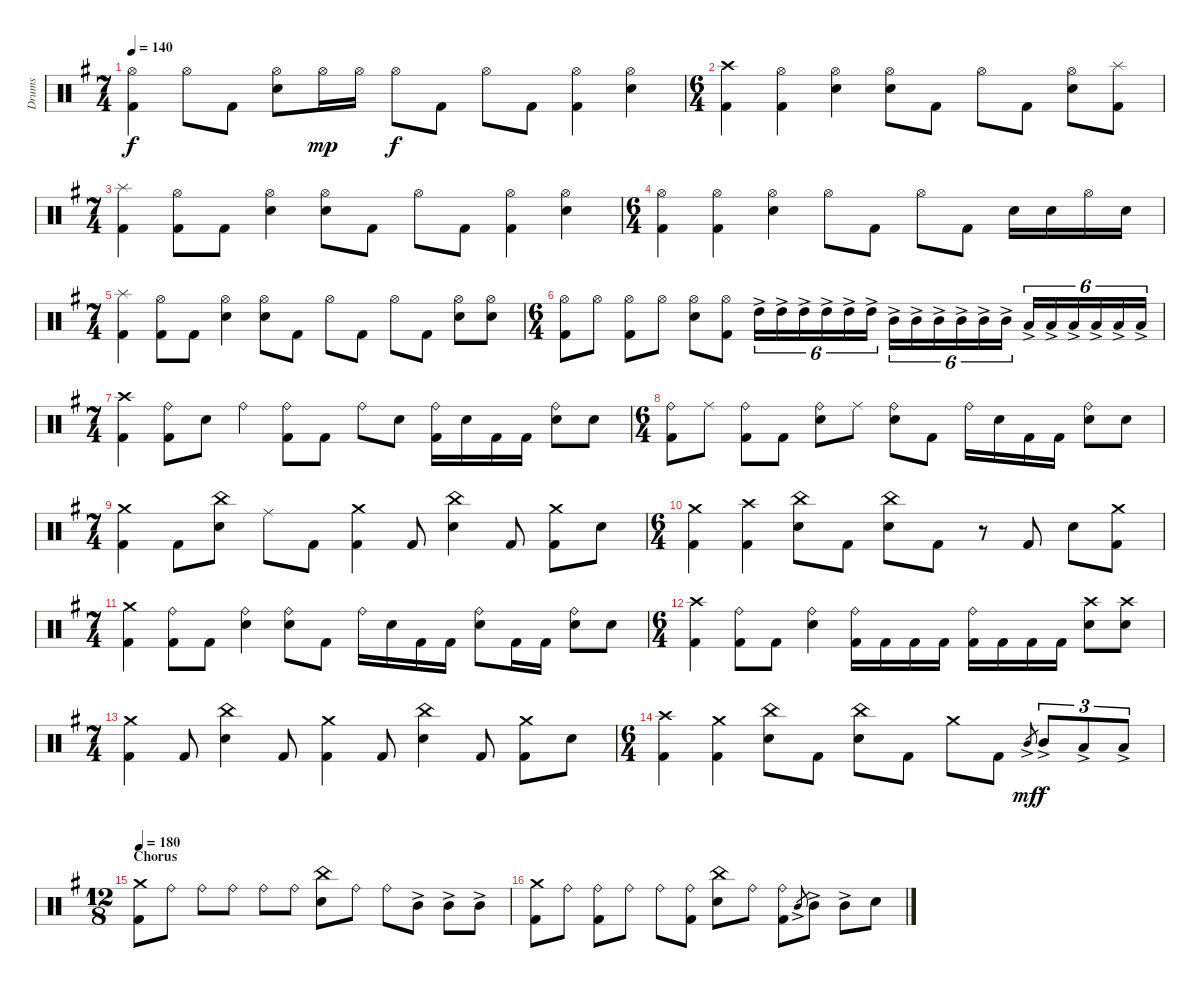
\defaultSystemsLayout 4
\bracketExtendMode groupsimilarinstruments
\otherSystemsTrackNameOrientation horizontal
\track ("Drumkit" "Drums") {multiBarRest instrument percussion}
\staff {score}
\articulation defaults
\ts (7 4)
\beaming (8 2 2 2 2 2 2 2)
\tempo 140
\clef neutral
\ks g
("Hi-Hat (open)"{acc forcenatural} "Kick (hit) 2"{acc forcenatural}).4{dy f} "Hi-Hat (open)"{acc forcenatural}.8 "Kick (hit) 2"{acc forcenatural}.8 ("Hi-Hat (open)"{acc forcenatural} "Snare (hit) 2"{acc forcenatural}).8 "Hi-Hat (open)"{acc forcenatural}.16{dy mp} "Hi-Hat (open)"{acc forcenatural}.16 "Hi-Hat (open)"{acc forcenatural}.8{dy f} "Kick (hit) 2"{acc forcenatural}.8 "Hi-Hat (open)"{acc forcenatural}.8 "Kick (hit) 2"{acc forcenatural}.8 ("Hi-Hat (open)"{acc forcenatural} "Kick (hit) 2"{acc forcenatural}).4 ("Hi-Hat (open)"{acc forcenatural} "Snare (hit) 2"{acc forcenatural}).4 |
\ts (6 4)
\beaming (8 2 2 2 2 2 2 2)
("Kick (hit) 2"{acc forcenatural} "Crash high (hit)"{acc forcenatural}).4 ("Hi-Hat (open)"{acc forcenatural} "Kick (hit) 2"{acc forcenatural}).4 ("Hi-Hat (open)"{acc forcenatural} "Snare (hit) 2"{acc forcenatural}).4 ("Hi-Hat (open)"{acc forcenatural} "Snare (hit) 2"{acc forcenatural}).8 "Kick (hit) 2"{acc forcenatural}.8 "Hi-Hat (open)"{acc forcenatural}.8 "Kick (hit) 2"{acc forcenatural}.8 ("Hi-Hat (open)"{acc forcenatural} "Snare (hit) 2"{acc forcenatural}).8 ("Splash (hit)"{acc forcenatural} "Kick (hit) 2"{acc forcenatural}).8 |
\ts (7 4)
\beaming (8 2 2 2 2 2 2 2)
("Splash (hit)"{acc forcenatural} "Kick (hit) 2"{acc forcenatural}).4 ("Hi-Hat (open)"{acc forcenatural} "Kick (hit) 2"{acc forcenatural}).8 "Kick (hit) 2"{acc forcenatural}.8 ("Hi-Hat (open)"{acc forcenatural} "Snare (hit) 2"{acc forcenatural}).4 ("Hi-Hat (open)"{acc forcenatural} "Snare (hit) 2"{acc forcenatural}).8 "Kick (hit) 2"{acc forcenatural}.8 "Hi-Hat (open)"{acc forcenatural}.8 "Kick (hit) 2"{acc forcenatural}.8 ("Hi-Hat (open)"{acc forcenatural} "Kick (hit) 2"{acc forcenatural}).4 ("Hi-Hat (open)"{acc forcenatural} "Snare (hit) 2"{acc forcenatural}).4 |
\ts (6 4)
\beaming (8 2 2 2 2 2 2 2)
("Hi-Hat (open)"{acc forcenatural} "Kick (hit) 2"{acc forcenatural}).4 ("Hi-Hat (open)"{acc forcenatural} "Kick (hit) 2"{acc forcenatural}).4 ("Hi-Hat (open)"{acc forcenatural} "Snare (hit) 2"{acc forcenatural}).4 "Hi-Hat (open)"{acc forcenatural}.8 "Kick (hit) 2"{acc forcenatural}.8 "Hi-Hat (open)"{acc forcenatural}.8 "Kick (hit) 2"{acc forcenatural}.8 "Snare (hit) 2"{acc forcenatural}.16 "Snare (hit) 2"{acc forcenatural}.16 "Hi-Hat (open)"{acc forcenatural}.16 "Snare (hit) 2"{acc forcenatural}.16 |
\ts (7 4)
\beaming (8 2 2 2 2 2 2 2)
("Splash (hit)"{acc forcenatural} "Kick (hit) 2"{acc forcenatural}).4 ("Hi-Hat (open)"{acc forcenatural} "Kick (hit) 2"{acc forcenatural}).8 "Kick (hit) 2"{acc forcenatural}.8 ("Hi-Hat (open)"{acc forcenatural} "Snare (hit) 2"{acc forcenatural}).4 ("Hi-Hat (open)"{acc forcenatural} "Snare (hit) 2"{acc forcenatural}).8 "Kick (hit) 2"{acc forcenatural}.8 "Hi-Hat (open)"{acc forcenatural}.8 "Kick (hit) 2"{acc forcenatural}.8 "Hi-Hat (open)"{acc forcenatural}.8 "Kick (hit) 2"{acc forcenatural}.8 ("Hi-Hat (open)"{acc forcenatural} "Snare (hit) 2"{acc forcenatural}).8 ("Snare (hit) 2"{acc forcenatural} "Hi-Hat (open)"{acc forcenatural}).8 |
\ts (6 4)
\beaming (8 2 2 2 2 2 2 2)
("Hi-Hat (open)"{acc forcenatural} "Kick (hit) 2"{acc forcenatural}).8 "Hi-Hat (open)"{acc forcenatural}.8 ("Hi-Hat (open)"{acc forcenatural} "Kick (hit) 2"{acc forcenatural}).8 "Hi-Hat (open)"{acc forcenatural}.8 ("Hi-Hat (open)"{acc forcenatural} "Snare (hit) 2"{acc forcenatural}).8 ("Hi-Hat (open)"{acc forcenatural} "Kick (hit) 2"{acc forcenatural}).8 "High Tom (hit)"{ac acc forcenatural}.16{tu (6 4)} "High Tom (hit)"{ac acc forcenatural}.16{tu (6 4)} "High Tom (hit)"{ac acc forcenatural}.16{tu (6 4) beam merge} "High Tom (hit)"{ac acc forcenatural}.16{tu (6 4)} "High Tom (hit)"{ac acc forcenatural}.16{tu (6 4)} "High Tom (hit)"{ac acc forcenatural}.16{tu (6 4)} "Mid Tom (hit)"{ac acc forcenatural}.16{tu (6 4)} "Mid Tom (hit)"{ac acc forcenatural}.16{tu (6 4)} "Mid Tom (hit)"{ac acc forcenatural}.16{tu (6 4) beam merge} "Mid Tom (hit)"{ac acc forcenatural}.16{tu (6 4)} "Mid Tom (hit)"{ac acc forcenatural}.16{tu (6 4)} "Mid Tom (hit)"{ac acc forcenatural}.16{tu (6 4)} "Low Tom (hit)"{ac acc forcenatural}.16{tu (6 4)} "Low Tom (hit)"{ac acc forcenatural}.16{tu (6 4)} "Low Tom (hit)"{ac acc forcenatural}.16{tu (6 4) beam merge} "Low Tom (hit)"{ac acc forcenatural}.16{tu (6 4)} "Low Tom (hit)"{ac acc forcenatural}.16{tu (6 4)} "Low Tom (hit)"{ac acc forcenatural}.16{tu (6 4)} |
\ts (7 4)
\beaming (8 2 2 2 2 2 2 2)
("Kick (hit) 2"{acc forcenatural} "Crash high (hit)"{acc forcenatural}).4 ("Ride (bell)"{acc forcenatural} "Kick (hit) 2"{acc forcenatural}).8 "Snare (hit) 2"{acc forcenatural}.8 "Ride (bell)"{acc forcenatural}.4 ("Ride (bell)"{acc forcenatural} "Kick (hit) 2"{acc forcenatural}).8 "Kick (hit) 2"{acc forcenatural}.8 "Ride (bell)"{acc forcenatural}.8 "Snare (hit) 2"{acc forcenatural}.8 ("Ride (bell)"{acc forcenatural} "Kick (hit) 2"{acc forcenatural}).16 "Snare (hit) 2"{acc forcenatural}.16 "Kick (hit) 2"{acc forcenatural}.16 "Kick (hit) 2"{acc forcenatural}.16 ("Ride (bell)"{acc forcenatural} "Snare (hit) 2"{acc forcenatural}).8 "Snare (hit) 2"{acc forcenatural}.8 |
\ts (6 4)
\beaming (8 2 2 2 2 2 2 2)
("Ride (bell)"{acc forcenatural} "Kick (hit) 2"{acc forcenatural}).8 "Ride (middle)"{acc forcenatural}.8 ("Ride (bell)"{acc forcenatural} "Kick (hit) 2"{acc forcenatural}).8 "Kick (hit) 2"{acc forcenatural}.8 ("Ride (bell)"{acc forcenatural} "Snare (hit) 2"{acc forcenatural}).8 "Ride (middle)"{acc forcenatural}.8 ("Ride (bell)"{acc forcenatural} "Snare (hit) 2"{acc forcenatural}).8 "Kick (hit) 2"{acc forcenatural}.8 "Ride (bell)"{acc forcenatural}.16 "Snare (hit) 2"{acc forcenatural}.16 "Kick (hit) 2"{acc forcenatural}.16 "Kick (hit) 2"{acc forcenatural}.16 ("Ride (bell)"{acc forcenatural} "Snare (hit) 2"{acc forcenatural}).8 "Snare (hit) 2"{acc forcenatural}.8 |
\ts (7 4)
\beaming (8 2 2 2 2 2 2 2)
("Crash medium (hit)"{acc forcenatural} "Kick (hit) 2"{acc forcenatural}).4 "Kick (hit) 2"{acc forcenatural}.8 ("Snare (hit) 2"{acc forcenatural} "China (hit)"{acc forcenatural}).8 "Ride (middle)"{acc forcenatural}.8 "Kick (hit) 2"{acc forcenatural}.8 ("Crash medium (hit)"{acc forcenatural} "Kick (hit) 2"{acc forcenatural}).4 "Kick (hit) 2"{acc forcenatural}.8 ("Snare (hit) 2"{acc forcenatural} "China (hit)"{acc forcenatural}).4 "Kick (hit) 2"{acc forcenatural}.8 ("Crash medium (hit)"{acc forcenatural} "Kick (hit) 2"{acc forcenatural}).8 "Snare (hit) 2"{acc forcenatural}.8 |
\ts (6 4)
\beaming (8 2 2 2 2 2 2 2)
("Kick (hit) 2"{acc forcenatural} "Crash medium (hit)"{acc forcenatural}).4 ("Crash high (hit)"{acc forcenatural} "Kick (hit) 2"{acc forcenatural}).4 ("Snare (hit) 2"{acc forcenatural} "China (hit)"{acc forcenatural}).8 "Kick (hit) 2"{acc forcenatural}.8 ("Snare (hit) 2"{acc forcenatural} "China (hit)"{acc forcenatural}).8 "Kick (hit) 2"{acc forcenatural}.8 r.8 "Kick (hit) 2"{acc forcenatural}.8 "Snare (hit) 2"{acc forcenatural}.8 ("Crash medium (hit)"{acc forcenatural} "Kick (hit) 2"{acc forcenatural}).8 |
\ts (7 4)
\beaming (8 2 2 2 2 2 2 2)
("Crash medium (hit)"{acc forcenatural} "Kick (hit) 2"{acc forcenatural}).4 ("Ride (bell)"{acc forcenatural} "Kick (hit) 2"{acc forcenatural}).8 "Kick (hit) 2"{acc forcenatural}.8 ("Ride (bell)"{acc forcenatural} "Snare (hit) 2"{acc forcenatural}).4 ("Ride (bell)"{acc forcenatural} "Snare (hit) 2"{acc forcenatural}).8 "Kick (hit) 2"{acc forcenatural}.8 "Ride (bell)"{acc forcenatural}.16 "Snare (hit) 2"{acc forcenatural}.16 "Kick (hit) 2"{acc forcenatural}.16 "Kick (hit) 2"{acc forcenatural}.16 ("Ride (bell)"{acc forcenatural} "Snare (hit) 2"{acc forcenatural}).8 "Kick (hit) 2"{acc forcenatural}.16 "Kick (hit) 2"{acc forcenatural}.16 ("Ride (bell)"{acc forcenatural} "Snare (hit) 2"{acc forcenatural}).8 "Snare (hit) 2"{acc forcenatural}.8 |
\ts (6 4)
\beaming (8 2 2 2 2 2 2 2)
("Kick (hit) 2"{acc forcenatural} "Crash high (hit)"{acc forcenatural}).4 ("Ride (bell)"{acc forcenatural} "Kick (hit) 2"{acc forcenatural}).8 "Kick (hit) 2"{acc forcenatural}.8 ("Ride (bell)"{acc forcenatural} "Snare (hit) 2"{acc forcenatural}).4 ("Ride (bell)"{acc forcenatural} "Kick (hit) 2"{acc forcenatural}).16 "Kick (hit) 2"{acc forcenatural}.16 "Kick (hit) 2"{acc forcenatural}.16 "Kick (hit) 2"{acc forcenatural}.16 ("Ride (bell)"{acc forcenatural} "Kick (hit) 2"{acc forcenatural}).16 "Kick (hit) 2"{acc forcenatural}.16 "Kick (hit) 2"{acc forcenatural}.16 "Kick (hit) 2"{acc forcenatural}.16 ("Snare (hit) 2"{acc forcenatural} "Crash high (hit)"{acc forcenatural}).8 ("Snare (hit) 2"{acc forcenatural} "Crash high (hit)"{acc forcenatural}).8 |
\ts (7 4)
\beaming (8 2 2 2 2 2 2 2)
("Crash medium (hit)"{acc forcenatural} "Kick (hit) 2"{acc forcenatural}).4 "Kick (hit) 2"{acc forcenatural}.8 ("Snare (hit) 2"{acc forcenatural} "China (hit)"{acc forcenatural}).4 "Kick (hit) 2"{acc forcenatural}.8 ("Crash medium (hit)"{acc forcenatural} "Kick (hit) 2"{acc forcenatural}).4 "Kick (hit) 2"{acc forcenatural}.8 ("Snare (hit) 2"{acc forcenatural} "China (hit)"{acc forcenatural}).4 "Kick (hit) 2"{acc forcenatural}.8 ("Crash medium (hit)"{acc forcenatural} "Kick (hit) 2"{acc forcenatural}).8 "Snare (hit) 2"{acc forcenatural}.8 |
\ts (6 4)
\beaming (8 2 2 2 2 2 2 2)
("Kick (hit) 2"{acc forcenatural} "Crash high (hit)"{acc forcenatural}).4 ("Crash medium (hit)"{acc forcenatural} "Kick (hit) 2"{acc forcenatural}).4 ("Snare (hit) 2"{acc forcenatural} "China (hit)"{acc forcenatural}).8 "Kick (hit) 2"{acc forcenatural}.8 ("Snare (hit) 2"{acc forcenatural} "China (hit)"{acc forcenatural}).8 "Kick (hit) 2"{acc forcenatural}.8 "Crash medium (hit)"{acc forcenatural}.8 "Kick (hit) 2"{acc forcenatural}.8 "Mid Tom (hit)"{ac acc forcenatural}.8{gr dy mf} "Mid Tom (hit)"{ac acc forcenatural}.8{tu (3 2) dy f} "Low Tom (hit)"{ac acc forcenatural}.8{tu (3 2)} "Low Tom (hit)"{ac acc forcenatural}.8{tu (3 2)} |
\ts (12 8)
\beaming (8 2 2 2 2 2 2 2)
\section ("" "Chorus")
\tempo 180
("Crash medium (hit)"{acc forcenatural} "Kick (hit) 2"{acc forcenatural}).8 "Ride (bell)"{acc forcenatural}.8 "Ride (bell)"{acc forcenatural}.8 "Ride (bell)"{acc forcenatural}.8 "Ride (bell)"{acc forcenatural}.8 "Ride (bell)"{acc forcenatural}.8 ("Snare (hit) 2"{acc forcenatural} "China (hit)"{acc forcenatural}).8 "Ride (bell)"{acc forcenatural}.8 "Ride (bell)"{acc forcenatural}.8 "Mid Tom (hit)"{ac acc forcenatural}.8 "Mid Tom (hit)"{ac acc forcenatural}.8 "Mid Tom (hit)"{ac acc forcenatural}.8 |
("Crash medium (hit)"{acc forcenatural} "Kick (hit) 2"{acc forcenatural}).8 "Ride (bell)"{acc forcenatural}.8 ("Ride (bell)"{acc forcenatural} "Kick (hit) 2"{acc forcenatural}).8 "Ride (bell)"{acc forcenatural}.8 "Ride (bell)"{acc forcenatural}.8 ("Ride (bell)"{acc forcenatural} "Kick (hit) 2"{acc forcenatural}).8 ("Snare (hit) 2"{acc forcenatural} "China (hit)"{acc forcenatural}).8 "Ride (bell)"{acc forcenatural}.8 ("Ride (bell)"{acc forcenatural} "Kick (hit) 2"{acc forcenatural}).8 "Mid Tom (hit)"{ac acc forcenatural}.8{gr} "Mid Tom (hit)"{ac acc forcenatural}.8 "Mid Tom (hit)"{ac acc forcenatural}.8 "Snare (hit) 2"{acc forcenatural}.8
